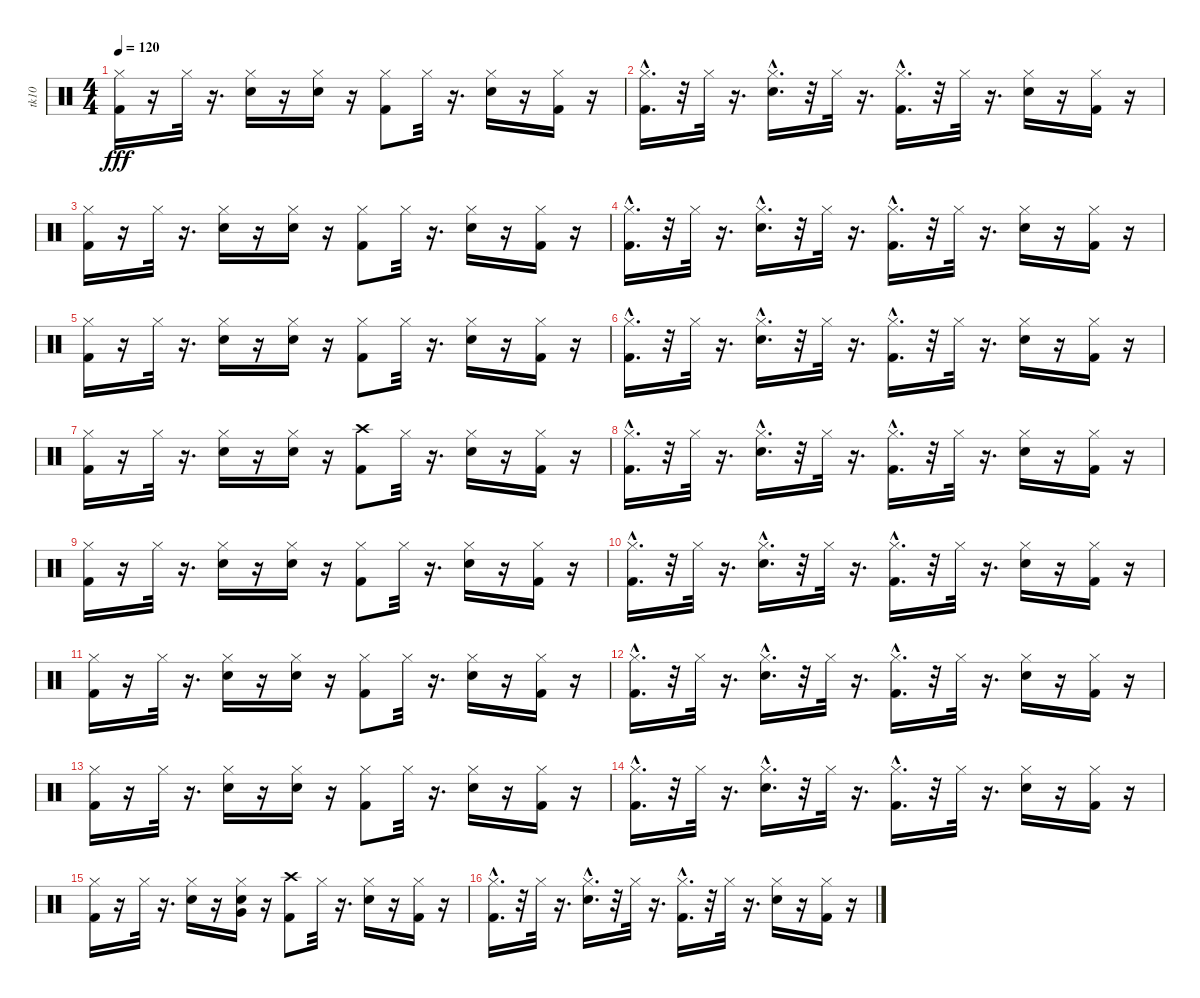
\track ("tk10" "tk10") {instrument percussion}
\staff {score}
\articulation defaults
\ts (4 4)
\tempo 120
\clef neutral
\ks c
("Kick (hit) 2" "Hi-Hat (closed)").16{dy fff} r.16 "Hi-Hat (closed)".32 r.16{d} ("Snare (hit) 2" "Hi-Hat (closed)").16 r.16 ("Hi-Hat (closed)" "Snare (hit) 2").16 r.16 ("Kick (hit) 2" "Hi-Hat (closed)").8 "Hi-Hat (closed)".32 r.16{d} ("Hi-Hat (closed)" "Snare (hit) 2").16 r.16 ("Kick (hit) 2" "Hi-Hat (closed)").16 r.16 |
("Hi-Hat (closed)" "Kick (hit) 2"{hac}).16{d} r.32 "Hi-Hat (closed)".32 r.16{d} ("Hi-Hat (closed)" "Snare (hit) 2"{hac}).16{d} r.32 "Hi-Hat (closed)".32 r.16{d} ("Hi-Hat (closed)" "Kick (hit) 2"{hac}).16{d} r.32 "Hi-Hat (closed)".32 r.16{d} ("Snare (hit) 2" "Hi-Hat (closed)").16 r.16 ("Hi-Hat (closed)" "Kick (hit) 2").16 r.16 |
("Hi-Hat (closed)" "Kick (hit) 2").16 r.16 "Hi-Hat (closed)".32 r.16{d} ("Snare (hit) 2" "Hi-Hat (closed)").16 r.16 ("Hi-Hat (closed)" "Snare (hit) 2").16 r.16 ("Kick (hit) 2" "Hi-Hat (closed)").8 "Hi-Hat (closed)".32 r.16{d} ("Hi-Hat (closed)" "Snare (hit) 2").16 r.16 ("Kick (hit) 2" "Hi-Hat (closed)").16 r.16 |
("Kick (hit) 2"{hac} "Hi-Hat (closed)").16{d} r.32 "Hi-Hat (closed)".32 r.16{d} ("Hi-Hat (closed)" "Snare (hit) 2"{hac}).16{d} r.32 "Hi-Hat (closed)".32 r.16{d} ("Kick (hit) 2"{hac} "Hi-Hat (closed)").16{d} r.32 "Hi-Hat (closed)".32 r.16{d} ("Snare (hit) 2" "Hi-Hat (closed)").16 r.16 ("Hi-Hat (closed)" "Kick (hit) 2").16 r.16 |
("Kick (hit) 2" "Hi-Hat (closed)").16 r.16 "Hi-Hat (closed)".32 r.16{d} ("Hi-Hat (closed)" "Snare (hit) 2").16 r.16 ("Snare (hit) 2" "Hi-Hat (closed)").16 r.16 ("Hi-Hat (closed)" "Kick (hit) 2").8 "Hi-Hat (closed)".32 r.16{d} ("Snare (hit) 2" "Hi-Hat (closed)").16 r.16 ("Hi-Hat (closed)" "Kick (hit) 2").16 r.16 |
("Kick (hit) 2"{hac} "Hi-Hat (closed)").16{d} r.32 "Hi-Hat (closed)".32 r.16{d} ("Hi-Hat (closed)" "Snare (hit) 2"{hac}).16{d} r.32 "Hi-Hat (closed)".32 r.16{d} ("Kick (hit) 2"{hac} "Hi-Hat (closed)").16{d} r.32 "Hi-Hat (closed)".32 r.16{d} ("Snare (hit) 2" "Hi-Hat (closed)").16 r.16 ("Hi-Hat (closed)" "Kick (hit) 2").16 r.16 |
("Hi-Hat (closed)" "Kick (hit) 2").16 r.16 "Hi-Hat (closed)".32 r.16{d} ("Hi-Hat (closed)" "Snare (hit) 2").16 r.16 ("Hi-Hat (closed)" "Snare (hit) 2").16 r.16 ("Kick (hit) 2" "Crash high (hit)").8 "Hi-Hat (closed)".32 r.16{d} ("Hi-Hat (closed)" "Snare (hit) 2").16 r.16 ("Hi-Hat (closed)" "Kick (hit) 2").16 r.16 |
("Hi-Hat (closed)" "Kick (hit) 2"{hac}).16{d} r.32 "Hi-Hat (closed)".32 r.16{d} ("Snare (hit) 2"{hac} "Hi-Hat (closed)").16{d} r.32 "Hi-Hat (closed)".32 r.16{d} ("Hi-Hat (closed)" "Kick (hit) 2"{hac}).16{d} r.32 "Hi-Hat (closed)".32 r.16{d} ("Hi-Hat (closed)" "Snare (hit) 2").16 r.16 ("Kick (hit) 2" "Hi-Hat (closed)").16 r.16 |
("Kick (hit) 2" "Hi-Hat (closed)").16 r.16 "Hi-Hat (closed)".32 r.16{d} ("Snare (hit) 2" "Hi-Hat (closed)").16 r.16 ("Hi-Hat (closed)" "Snare (hit) 2").16 r.16 ("Hi-Hat (closed)" "Kick (hit) 2").8 "Hi-Hat (closed)".32 r.16{d} ("Snare (hit) 2" "Hi-Hat (closed)").16 r.16 ("Hi-Hat (closed)" "Kick (hit) 2").16 r.16 |
("Kick (hit) 2"{hac} "Hi-Hat (closed)").16{d} r.32 "Hi-Hat (closed)".32 r.16{d} ("Snare (hit) 2"{hac} "Hi-Hat (closed)").16{d} r.32 "Hi-Hat (closed)".32 r.16{d} ("Kick (hit) 2"{hac} "Hi-Hat (closed)").16{d} r.32 "Hi-Hat (closed)".32 r.16{d} ("Snare (hit) 2" "Hi-Hat (closed)").16 r.16 ("Hi-Hat (closed)" "Kick (hit) 2").16 r.16 |
("Hi-Hat (closed)" "Kick (hit) 2").16 r.16 "Hi-Hat (closed)".32 r.16{d} ("Snare (hit) 2" "Hi-Hat (closed)").16 r.16 ("Snare (hit) 2" "Hi-Hat (closed)").16 r.16 ("Hi-Hat (closed)" "Kick (hit) 2").8 "Hi-Hat (closed)".32 r.16{d} ("Hi-Hat (closed)" "Snare (hit) 2").16 r.16 ("Kick (hit) 2" "Hi-Hat (closed)").16 r.16 |
("Kick (hit) 2"{hac} "Hi-Hat (closed)").16{d} r.32 "Hi-Hat (closed)".32 r.16{d} ("Snare (hit) 2"{hac} "Hi-Hat (closed)").16{d} r.32 "Hi-Hat (closed)".32 r.16{d} ("Hi-Hat (closed)" "Kick (hit) 2"{hac}).16{d} r.32 "Hi-Hat (closed)".32 r.16{d} ("Hi-Hat (closed)" "Snare (hit) 2").16 r.16 ("Hi-Hat (closed)" "Kick (hit) 2").16 r.16 |
("Hi-Hat (closed)" "Kick (hit) 2").16 r.16 "Hi-Hat (closed)".32 r.16{d} ("Hi-Hat (closed)" "Snare (hit) 2").16 r.16 ("Hi-Hat (closed)" "Snare (hit) 2").16 r.16 ("Hi-Hat (closed)" "Kick (hit) 2").8 "Hi-Hat (closed)".32 r.16{d} ("Snare (hit) 2" "Hi-Hat (closed)").16 r.16 ("Kick (hit) 2" "Hi-Hat (closed)").16 r.16 |
("Hi-Hat (closed)" "Kick (hit) 2"{hac}).16{d} r.32 "Hi-Hat (closed)".32 r.16{d} ("Snare (hit) 2"{hac} "Hi-Hat (closed)").16{d} r.32 "Hi-Hat (closed)".32 r.16{d} ("Hi-Hat (closed)" "Kick (hit) 2"{hac}).16{d} r.32 "Hi-Hat (closed)".32 r.16{d} ("Snare (hit) 2" "Hi-Hat (closed)").16 r.16 ("Kick (hit) 2" "Hi-Hat (closed)").16 r.16 |
("Kick (hit) 2" "Hi-Hat (closed)").16 r.16 "Hi-Hat (closed)".32 r.16{d} ("Hi-Hat (closed)" "Snare (hit) 2").16 r.16 ("Snare (hit) 2" "Hi-Hat (closed)" "Very Low Tom (hit)").16 r.16 ("Crash high (hit)" "Kick (hit) 2").8 "Hi-Hat (closed)".32 r.16{d} ("Hi-Hat (closed)" "Snare (hit) 2").16 r.16 ("Kick (hit) 2" "Hi-Hat (closed)").16 r.16 |
("Hi-Hat (closed)" "Kick (hit) 2"{hac}).16{d} r.32 "Hi-Hat (closed)".32 r.16{d} ("Snare (hit) 2"{hac} "Hi-Hat (closed)").16{d} r.32 "Hi-Hat (closed)".32 r.16{d} ("Hi-Hat (closed)" "Kick (hit) 2"{hac}).16{d} r.32 "Hi-Hat (closed)".32 r.16{d} ("Snare (hit) 2" "Hi-Hat (closed)").16 r.16 ("Hi-Hat (closed)" "Kick (hit) 2").16 r.16
